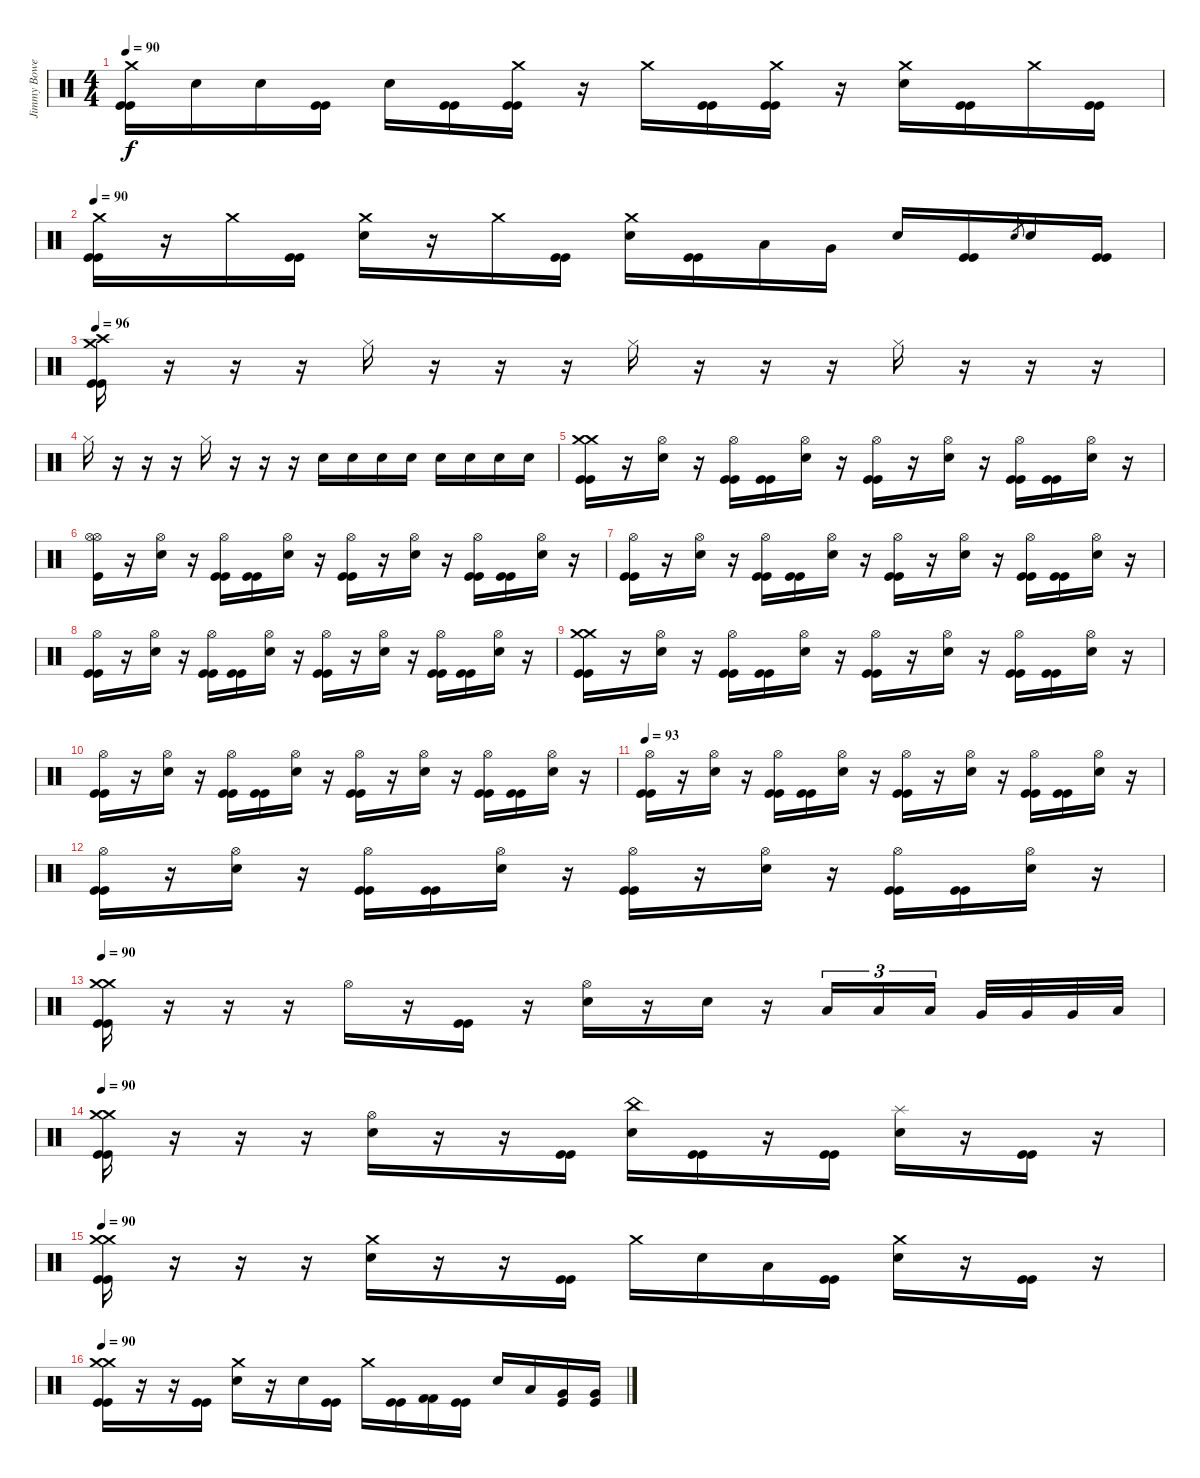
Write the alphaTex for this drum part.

\track ("Jimmy Bower" "Jimmy Bowe") {instrument percussion}
\staff {score}
\articulation defaults
\ts (4 4)
\tempo 90
\clef neutral
\ks c
("Crash medium (hit)" "Kick (hit)" "Kick (hit)").16{dy f} "Snare (hit) 2".16 "Snare (hit) 2".16 ("Kick (hit)" "Kick (hit)").16 "Snare (hit) 2".16 ("Kick (hit)" "Kick (hit)").16 ("Crash medium (hit)" "Kick (hit)" "Kick (hit)").16 r.16 "Crash medium (hit)".16 ("Kick (hit)" "Kick (hit)").16 ("Crash medium (hit)" "Kick (hit)" "Kick (hit)").16 r.16 ("Crash medium (hit)" "Snare (hit) 2").16 ("Kick (hit)" "Kick (hit)").16 "Crash medium (hit)".16 ("Kick (hit)" "Kick (hit)").16 |
\tempo 90
("Crash medium (hit)" "Kick (hit)" "Kick (hit)").16 r.16 "Crash medium (hit)".16 ("Kick (hit)" "Kick (hit)").16 ("Crash medium (hit)" "Snare (hit) 2").16 r.16 "Crash medium (hit)".16 ("Kick (hit)" "Kick (hit)").16 ("Crash medium (hit)" "Snare (hit) 2").16 ("Kick (hit)" "Kick (hit)").16 "Low Tom (hit)".16 "Very Low Tom (hit)".16 "Snare (hit) 2".16 ("Kick (hit)" "Kick (hit)").16 "Snare (hit) 2".8{gr} "Snare (hit) 2".16 ("Kick (hit)" "Kick (hit)").16 |
\tempo 96
("Crash medium (hit)" "Crash high (hit)" "Kick (hit)" "Kick (hit)").16 r.16 r.16 r.16 "Hi-Hat (closed)".16 r.16 r.16 r.16 "Hi-Hat (closed)".16 r.16 r.16 r.16 "Hi-Hat (closed)".16 r.16 r.16 r.16 |
"Hi-Hat (closed)".16 r.16 r.16 r.16 "Hi-Hat (closed)".16 r.16 r.16 r.16 "Snare (hit) 2".16 "Snare (hit) 2".16 "Snare (hit) 2".16 "Snare (hit) 2".16 "Snare (hit) 2".16 "Snare (hit) 2".16 "Snare (hit) 2".16 "Snare (hit) 2".16 |
("Crash medium (hit)" "Crash medium (hit)" "Kick (hit)" "Kick (hit)").16 r.16 ("Hi-Hat (open)" "Snare (hit) 2").16 r.16 ("Hi-Hat (open)" "Kick (hit)" "Kick (hit)").16 ("Kick (hit)" "Kick (hit)").16 ("Hi-Hat (open)" "Snare (hit) 2").16 r.16 ("Hi-Hat (open)" "Kick (hit)" "Kick (hit)").16 r.16 ("Hi-Hat (open)" "Snare (hit) 2").16 r.16 ("Hi-Hat (open)" "Kick (hit)" "Kick (hit)").16 ("Kick (hit)" "Kick (hit)").16 ("Hi-Hat (open)" "Snare (hit) 2").16 r.16 |
("Hi-Hat (open)" "Hi-Hat (open)" "Kick (hit)").16 r.16 ("Hi-Hat (open)" "Snare (hit) 2").16 r.16 ("Hi-Hat (open)" "Kick (hit)" "Kick (hit)").16 ("Kick (hit)" "Kick (hit)").16 ("Hi-Hat (open)" "Snare (hit) 2").16 r.16 ("Hi-Hat (open)" "Kick (hit)" "Kick (hit)").16 r.16 ("Hi-Hat (open)" "Snare (hit) 2").16 r.16 ("Hi-Hat (open)" "Kick (hit)" "Kick (hit)").16 ("Kick (hit)" "Kick (hit)").16 ("Hi-Hat (open)" "Snare (hit) 2").16 r.16 |
("Hi-Hat (open)" "Kick (hit)" "Kick (hit)").16 r.16 ("Hi-Hat (open)" "Snare (hit) 2").16 r.16 ("Hi-Hat (open)" "Kick (hit)" "Kick (hit)").16 ("Kick (hit)" "Kick (hit)").16 ("Hi-Hat (open)" "Snare (hit) 2").16 r.16 ("Hi-Hat (open)" "Kick (hit)" "Kick (hit)").16 r.16 ("Hi-Hat (open)" "Snare (hit) 2").16 r.16 ("Hi-Hat (open)" "Kick (hit)" "Kick (hit)").16 ("Kick (hit)" "Kick (hit)").16 ("Hi-Hat (open)" "Snare (hit) 2").16 r.16 |
("Hi-Hat (open)" "Kick (hit)" "Kick (hit)").16 r.16 ("Hi-Hat (open)" "Snare (hit) 2").16 r.16 ("Hi-Hat (open)" "Kick (hit)" "Kick (hit)").16 ("Kick (hit)" "Kick (hit)").16 ("Hi-Hat (open)" "Snare (hit) 2").16 r.16 ("Hi-Hat (open)" "Kick (hit)" "Kick (hit)").16 r.16 ("Hi-Hat (open)" "Snare (hit) 2").16 r.16 ("Hi-Hat (open)" "Kick (hit)" "Kick (hit)").16 ("Kick (hit)" "Kick (hit)").16 ("Hi-Hat (open)" "Snare (hit) 2").16 r.16 |
("Crash medium (hit)" "Crash medium (hit)" "Kick (hit)" "Kick (hit)").16 r.16 ("Hi-Hat (open)" "Snare (hit) 2").16 r.16 ("Hi-Hat (open)" "Kick (hit)" "Kick (hit)").16 ("Kick (hit)" "Kick (hit)").16 ("Hi-Hat (open)" "Snare (hit) 2").16 r.16 ("Hi-Hat (open)" "Kick (hit)" "Kick (hit)").16 r.16 ("Hi-Hat (open)" "Snare (hit) 2").16 r.16 ("Hi-Hat (open)" "Kick (hit)" "Kick (hit)").16 ("Kick (hit)" "Kick (hit)").16 ("Hi-Hat (open)" "Snare (hit) 2").16 r.16 |
("Hi-Hat (open)" "Kick (hit)" "Kick (hit)").16 r.16 ("Hi-Hat (open)" "Snare (hit) 2").16 r.16 ("Hi-Hat (open)" "Kick (hit)" "Kick (hit)").16 ("Kick (hit)" "Kick (hit)").16 ("Hi-Hat (open)" "Snare (hit) 2").16 r.16 ("Hi-Hat (open)" "Kick (hit)" "Kick (hit)").16 r.16 ("Hi-Hat (open)" "Snare (hit) 2").16 r.16 ("Hi-Hat (open)" "Kick (hit)" "Kick (hit)").16 ("Kick (hit)" "Kick (hit)").16 ("Hi-Hat (open)" "Snare (hit) 2").16 r.16 |
\tempo 93
("Hi-Hat (open)" "Kick (hit)" "Kick (hit)").16 r.16 ("Hi-Hat (open)" "Snare (hit) 2").16 r.16 ("Hi-Hat (open)" "Kick (hit)" "Kick (hit)").16 ("Kick (hit)" "Kick (hit)").16 ("Hi-Hat (open)" "Snare (hit) 2").16 r.16 ("Hi-Hat (open)" "Kick (hit)" "Kick (hit)").16 r.16 ("Hi-Hat (open)" "Snare (hit) 2").16 r.16 ("Hi-Hat (open)" "Kick (hit)" "Kick (hit)").16 ("Kick (hit)" "Kick (hit)").16 ("Hi-Hat (open)" "Snare (hit) 2").16 r.16 |
("Hi-Hat (open)" "Kick (hit)" "Kick (hit)").16 r.16 ("Hi-Hat (open)" "Snare (hit) 2").16 r.16 ("Hi-Hat (open)" "Kick (hit)" "Kick (hit)").16 ("Kick (hit)" "Kick (hit)").16 ("Hi-Hat (open)" "Snare (hit) 2").16 r.16 ("Hi-Hat (open)" "Kick (hit)" "Kick (hit)").16 r.16 ("Hi-Hat (open)" "Snare (hit) 2").16 r.16 ("Hi-Hat (open)" "Kick (hit)" "Kick (hit)").16 ("Kick (hit)" "Kick (hit)").16 ("Hi-Hat (open)" "Snare (hit) 2").16 r.16 |
\tempo 90
("Crash medium (hit)" "Crash medium (hit)" "Kick (hit)" "Kick (hit)").16 r.16 r.16 r.16 "Hi-Hat (open)".16 r.16 ("Kick (hit)" "Kick (hit)").16 r.16 ("Hi-Hat (open)" "Snare (hit) 2").16 r.16 "Snare (hit) 2".16 r.16 "Low Tom (hit)".16{tu (3 2)} "Low Tom (hit)".16{tu (3 2)} "Low Tom (hit)".16{tu (3 2)} "Very Low Tom (hit)".32 "Very Low Tom (hit)".32 "Very Low Tom (hit)".32 "Low Floor Tom (hit)".32 |
\tempo 90
("Crash medium (hit)" "Crash medium (hit)" "Kick (hit)" "Kick (hit)").16 r.16 r.16 r.16 ("Hi-Hat (open)" "Snare (hit) 2").16 r.16 r.16 ("Kick (hit)" "Kick (hit)").16 ("China (hit)" "Snare (hit) 2").16 ("Kick (hit)" "Kick (hit)").16 r.16 ("Kick (hit)" "Kick (hit)").16 ("Splash (hit)" "Snare (hit) 2").16 r.16 ("Kick (hit)" "Kick (hit)").16 r.16 |
\tempo 90
("Crash medium (hit)" "Crash medium (hit)" "Kick (hit)" "Kick (hit)").16 r.16 r.16 r.16 ("Crash medium (hit)" "Snare (hit) 2").16 r.16 r.16 ("Kick (hit)" "Kick (hit)").16 "Crash medium (hit)".16 "Snare (hit) 2".16 "Low Tom (hit)".16 ("Kick (hit)" "Kick (hit)").16 ("Crash medium (hit)" "Snare (hit) 2").16 r.16 ("Kick (hit)" "Kick (hit)").16 r.16 |
\tempo 90
("Crash medium (hit)" "Crash medium (hit)" "Kick (hit)" "Kick (hit)").16 r.16 r.16 ("Kick (hit)" "Kick (hit)").16 ("Crash medium (hit)" "Snare (hit) 2").16 r.16 "Snare (hit) 2".16 ("Kick (hit)" "Kick (hit)").16 "Crash medium (hit)".16 ("Kick (hit)" "Kick (hit)").16 ("Kick (hit) 2" "Kick (hit) 2").16 ("Kick (hit)" "Kick (hit)").16 "Snare (hit) 2".16 "Low Tom (hit)".16 ("Very Low Tom (hit)" "Kick (hit)").16 ("Very Low Tom (hit)" "Kick (hit)").16
